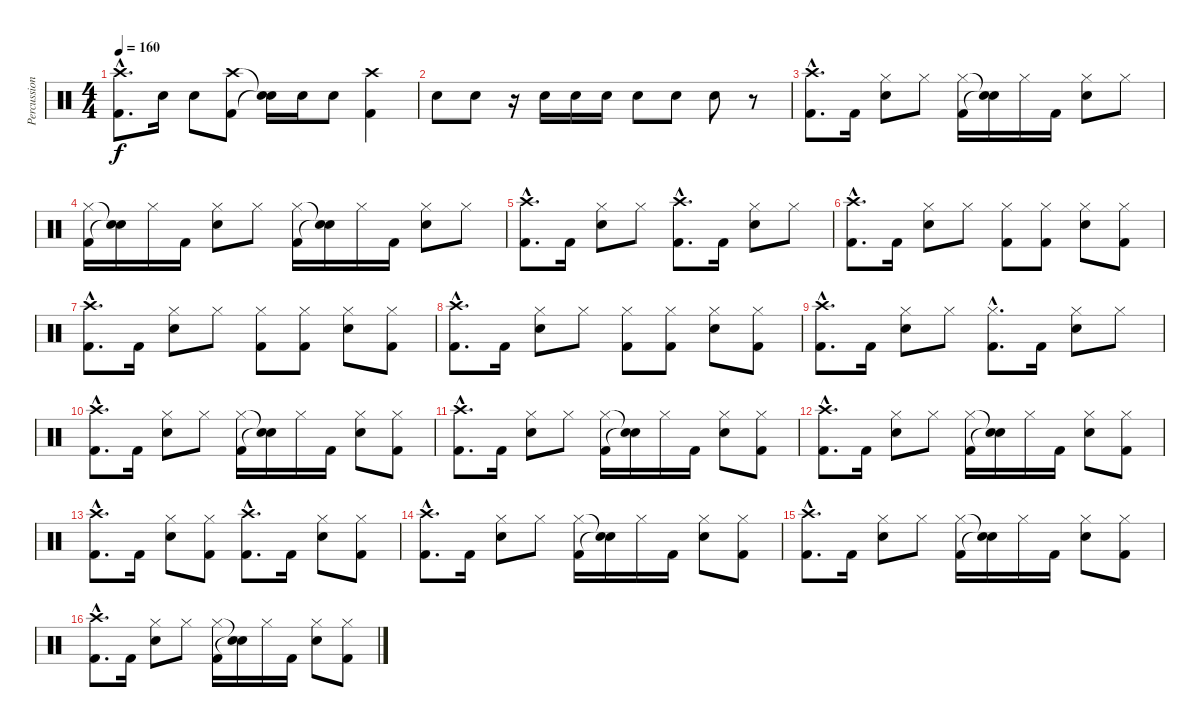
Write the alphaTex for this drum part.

\track ("Percussion" "Percussion") {instrument percussion}
\staff {score}
\articulation defaults
\ts (4 4)
\tempo 160
\clef neutral
\ks c
("Crash high (hit)"{hac} "Kick (hit) 2"{hac}).8{d dy f} "Snare (hit) 2".16 "Snare (hit) 2".8 ("Crash high (hit)" "Kick (hit) 2").8 ("Snare (hit)"{t} "Snare (hit)"{t}).16 "Snare (hit) 2".16 "Snare (hit) 2".8 ("Crash high (hit)" "Kick (hit) 2").4 |
"Snare (hit) 2".8 "Snare (hit) 2".8 r.16 "Snare (hit) 2".16 "Snare (hit) 2".16 "Snare (hit) 2".16 "Snare (hit) 2".8 "Snare (hit) 2".8 "Snare (hit) 2".8 r.8 |
("Crash high (hit)"{hac} "Kick (hit) 2"{hac}).8{d} "Kick (hit) 2".16 ("Hi-Hat (closed)" "Snare (hit) 2").8 "Hi-Hat (closed)".8 ("Hi-Hat (closed)" "Kick (hit) 2").16 ("Snare (hit)"{t} "Snare (hit)"{t}).16 "Hi-Hat (closed)".16 "Kick (hit) 2".16 ("Hi-Hat (closed)" "Snare (hit) 2").8 "Hi-Hat (closed)".8 |
("Hi-Hat (closed)" "Kick (hit) 2").16 ("Snare (hit)"{t} "Snare (hit)"{t}).16 "Hi-Hat (closed)".16 "Kick (hit) 2".16 ("Hi-Hat (closed)" "Snare (hit) 2").8 "Hi-Hat (closed)".8 ("Hi-Hat (closed)" "Kick (hit) 2").16 ("Snare (hit)"{t} "Snare (hit)"{t}).16 "Hi-Hat (closed)".16 "Kick (hit) 2".16 ("Hi-Hat (closed)" "Snare (hit) 2").8 "Hi-Hat (closed)".8 |
("Crash high (hit)"{hac} "Kick (hit) 2"{hac}).8{d} "Kick (hit) 2".16 ("Hi-Hat (closed)" "Snare (hit) 2").8 "Hi-Hat (closed)".8 ("Crash high (hit)"{hac} "Kick (hit) 2"{hac}).8{d} "Kick (hit) 2".16 ("Hi-Hat (closed)" "Snare (hit) 2").8 "Hi-Hat (closed)".8 |
("Crash high (hit)"{hac} "Kick (hit) 2"{hac}).8{d} "Kick (hit) 2".16 ("Hi-Hat (closed)" "Snare (hit) 2").8 "Hi-Hat (closed)".8 ("Hi-Hat (closed)" "Kick (hit) 2").8 ("Hi-Hat (closed)" "Kick (hit) 2").8 ("Hi-Hat (closed)" "Snare (hit) 2").8 ("Hi-Hat (closed)" "Kick (hit) 2").8 |
("Crash high (hit)"{hac} "Kick (hit) 2"{hac}).8{d} "Kick (hit) 2".16 ("Hi-Hat (closed)" "Snare (hit) 2").8 "Hi-Hat (closed)".8 ("Hi-Hat (closed)" "Kick (hit) 2").8 ("Hi-Hat (closed)" "Kick (hit) 2").8 ("Hi-Hat (closed)" "Snare (hit) 2").8 ("Hi-Hat (closed)" "Kick (hit) 2").8 |
("Crash high (hit)"{hac} "Kick (hit) 2"{hac}).8{d} "Kick (hit) 2".16 ("Hi-Hat (closed)" "Snare (hit) 2").8 "Hi-Hat (closed)".8 ("Hi-Hat (closed)" "Kick (hit) 2").8 ("Hi-Hat (closed)" "Kick (hit) 2").8 ("Hi-Hat (closed)" "Snare (hit) 2").8 ("Hi-Hat (closed)" "Kick (hit) 2").8 |
("Crash high (hit)"{hac} "Kick (hit) 2"{hac}).8{d} "Kick (hit) 2".16 ("Hi-Hat (closed)" "Snare (hit) 2").8 "Hi-Hat (closed)".8 ("Hi-Hat (closed)"{hac} "Kick (hit) 2"{hac}).8{d} "Kick (hit) 2".16 ("Hi-Hat (closed)" "Snare (hit) 2").8 "Hi-Hat (closed)".8 |
("Crash high (hit)"{hac} "Kick (hit) 2"{hac}).8{d} "Kick (hit) 2".16 ("Hi-Hat (closed)" "Snare (hit) 2").8 "Hi-Hat (closed)".8 ("Hi-Hat (closed)" "Kick (hit) 2").16 ("Snare (hit)"{t} "Snare (hit)"{t}).16 "Hi-Hat (closed)".16 "Kick (hit) 2".16 ("Hi-Hat (closed)" "Snare (hit) 2").8 ("Hi-Hat (closed)" "Kick (hit) 2").8 |
("Crash high (hit)"{hac} "Kick (hit) 2"{hac}).8{d} "Kick (hit) 2".16 ("Hi-Hat (closed)" "Snare (hit) 2").8 "Hi-Hat (closed)".8 ("Hi-Hat (closed)" "Kick (hit) 2").16 ("Snare (hit)"{t} "Snare (hit)"{t}).16 "Hi-Hat (closed)".16 "Kick (hit) 2".16 ("Hi-Hat (closed)" "Snare (hit) 2").8 ("Hi-Hat (closed)" "Kick (hit) 2").8 |
("Crash high (hit)"{hac} "Kick (hit) 2"{hac}).8{d} "Kick (hit) 2".16 ("Hi-Hat (closed)" "Snare (hit) 2").8 "Hi-Hat (closed)".8 ("Hi-Hat (closed)" "Kick (hit) 2").16 ("Snare (hit)"{t} "Snare (hit)"{t}).16 "Hi-Hat (closed)".16 "Kick (hit) 2".16 ("Hi-Hat (closed)" "Snare (hit) 2").8 ("Hi-Hat (closed)" "Kick (hit) 2").8 |
("Crash high (hit)"{hac} "Kick (hit) 2"{hac}).8{d} "Kick (hit) 2".16 ("Hi-Hat (closed)" "Snare (hit) 2").8 ("Hi-Hat (closed)" "Kick (hit) 2").8 ("Crash high (hit)"{hac} "Kick (hit) 2"{hac}).8{d} "Kick (hit) 2".16 ("Hi-Hat (closed)" "Snare (hit) 2").8 ("Hi-Hat (closed)" "Kick (hit) 2").8 |
("Crash high (hit)"{hac} "Kick (hit) 2"{hac}).8{d} "Kick (hit) 2".16 ("Hi-Hat (closed)" "Snare (hit) 2").8 "Hi-Hat (closed)".8 ("Hi-Hat (closed)" "Kick (hit) 2").16 ("Snare (hit)"{t} "Snare (hit)"{t}).16 "Hi-Hat (closed)".16 "Kick (hit) 2".16 ("Hi-Hat (closed)" "Snare (hit) 2").8 ("Hi-Hat (closed)" "Kick (hit) 2").8 |
("Crash high (hit)"{hac} "Kick (hit) 2"{hac}).8{d} "Kick (hit) 2".16 ("Hi-Hat (closed)" "Snare (hit) 2").8 "Hi-Hat (closed)".8 ("Hi-Hat (closed)" "Kick (hit) 2").16 ("Snare (hit)"{t} "Snare (hit)"{t}).16 "Hi-Hat (closed)".16 "Kick (hit) 2".16 ("Hi-Hat (closed)" "Snare (hit) 2").8 ("Hi-Hat (closed)" "Kick (hit) 2").8 |
("Crash high (hit)"{hac} "Kick (hit) 2"{hac}).8{d} "Kick (hit) 2".16 ("Hi-Hat (closed)" "Snare (hit) 2").8 "Hi-Hat (closed)".8 ("Hi-Hat (closed)" "Kick (hit) 2").16 ("Snare (hit)"{t} "Snare (hit)"{t}).16 "Hi-Hat (closed)".16 "Kick (hit) 2".16 ("Hi-Hat (closed)" "Snare (hit) 2").8 ("Hi-Hat (closed)" "Kick (hit) 2").8
